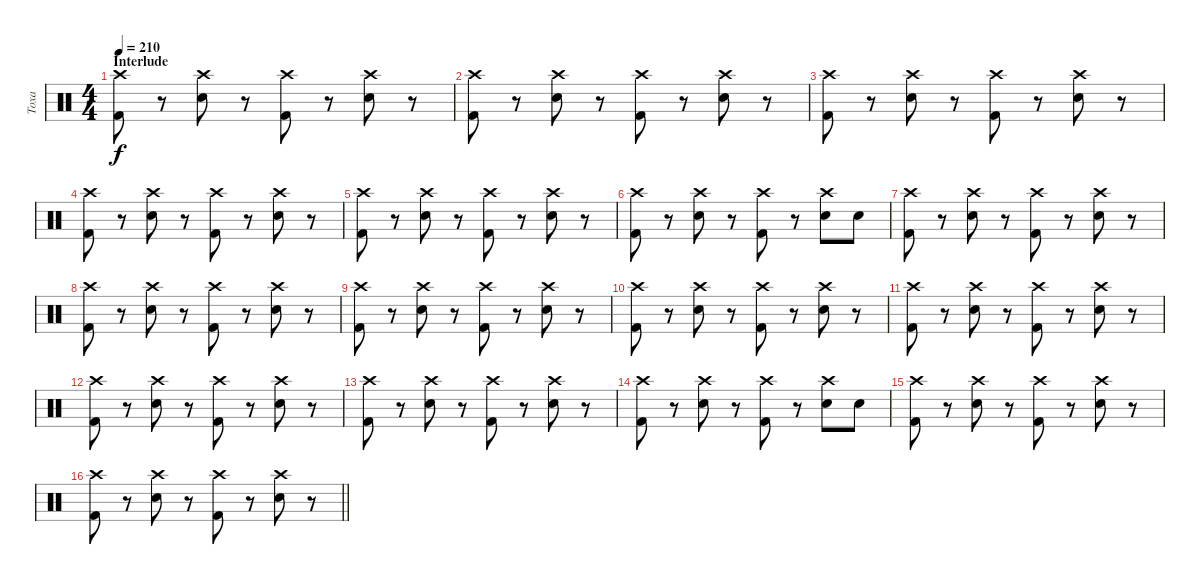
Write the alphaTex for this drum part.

\track ("Toxa" "Toxa") {instrument percussion}
\staff {score}
\articulation defaults
\ts (4 4)
\section ("" "Interlude")
\tempo 210
\clef neutral
\ks c
("Kick (hit) 2" "Crash high (hit)").8{dy f} r.8 ("Snare (hit) 2" "Crash high (hit)").8 r.8 ("Kick (hit) 2" "Crash high (hit)").8 r.8 ("Snare (hit) 2" "Crash high (hit)").8 r.8 |
("Kick (hit) 2" "Crash high (hit)").8 r.8 ("Snare (hit) 2" "Crash high (hit)").8 r.8 ("Kick (hit) 2" "Crash high (hit)").8 r.8 ("Snare (hit) 2" "Crash high (hit)").8 r.8 |
("Kick (hit) 2" "Crash high (hit)").8 r.8 ("Snare (hit) 2" "Crash high (hit)").8 r.8 ("Kick (hit) 2" "Crash high (hit)").8 r.8 ("Snare (hit) 2" "Crash high (hit)").8 r.8 |
("Kick (hit) 2" "Crash high (hit)").8 r.8 ("Snare (hit) 2" "Crash high (hit)").8 r.8 ("Kick (hit) 2" "Crash high (hit)").8 r.8 ("Snare (hit) 2" "Crash high (hit)").8 r.8 |
("Kick (hit) 2" "Crash high (hit)").8 r.8 ("Snare (hit) 2" "Crash high (hit)").8 r.8 ("Kick (hit) 2" "Crash high (hit)").8 r.8 ("Snare (hit) 2" "Crash high (hit)").8 r.8 |
("Kick (hit) 2" "Crash high (hit)").8 r.8 ("Snare (hit) 2" "Crash high (hit)").8 r.8 ("Kick (hit) 2" "Crash high (hit)").8 r.8 ("Snare (hit) 2" "Crash high (hit)").8 "Snare (hit) 2".8 |
("Kick (hit) 2" "Crash high (hit)").8 r.8 ("Snare (hit) 2" "Crash high (hit)").8 r.8 ("Kick (hit) 2" "Crash high (hit)").8 r.8 ("Snare (hit) 2" "Crash high (hit)").8 r.8 |
("Kick (hit) 2" "Crash high (hit)").8 r.8 ("Snare (hit) 2" "Crash high (hit)").8 r.8 ("Kick (hit) 2" "Crash high (hit)").8 r.8 ("Snare (hit) 2" "Crash high (hit)").8 r.8 |
("Kick (hit) 2" "Crash high (hit)").8 r.8 ("Snare (hit) 2" "Crash high (hit)").8 r.8 ("Kick (hit) 2" "Crash high (hit)").8 r.8 ("Snare (hit) 2" "Crash high (hit)").8 r.8 |
("Kick (hit) 2" "Crash high (hit)").8 r.8 ("Snare (hit) 2" "Crash high (hit)").8 r.8 ("Kick (hit) 2" "Crash high (hit)").8 r.8 ("Snare (hit) 2" "Crash high (hit)").8 r.8 |
("Kick (hit) 2" "Crash high (hit)").8 r.8 ("Snare (hit) 2" "Crash high (hit)").8 r.8 ("Kick (hit) 2" "Crash high (hit)").8 r.8 ("Snare (hit) 2" "Crash high (hit)").8 r.8 |
("Kick (hit) 2" "Crash high (hit)").8 r.8 ("Snare (hit) 2" "Crash high (hit)").8 r.8 ("Kick (hit) 2" "Crash high (hit)").8 r.8 ("Snare (hit) 2" "Crash high (hit)").8 r.8 |
("Kick (hit) 2" "Crash high (hit)").8 r.8 ("Snare (hit) 2" "Crash high (hit)").8 r.8 ("Kick (hit) 2" "Crash high (hit)").8 r.8 ("Snare (hit) 2" "Crash high (hit)").8 r.8 |
("Kick (hit) 2" "Crash high (hit)").8 r.8 ("Snare (hit) 2" "Crash high (hit)").8 r.8 ("Kick (hit) 2" "Crash high (hit)").8 r.8 ("Snare (hit) 2" "Crash high (hit)").8 "Snare (hit) 2".8 |
("Kick (hit) 2" "Crash high (hit)").8 r.8 ("Snare (hit) 2" "Crash high (hit)").8 r.8 ("Kick (hit) 2" "Crash high (hit)").8 r.8 ("Snare (hit) 2" "Crash high (hit)").8 r.8 |
\barLineRight lightlight
("Kick (hit) 2" "Crash high (hit)").8 r.8 ("Snare (hit) 2" "Crash high (hit)").8 r.8 ("Kick (hit) 2" "Crash high (hit)").8 r.8 ("Snare (hit) 2" "Crash high (hit)").8 r.8
